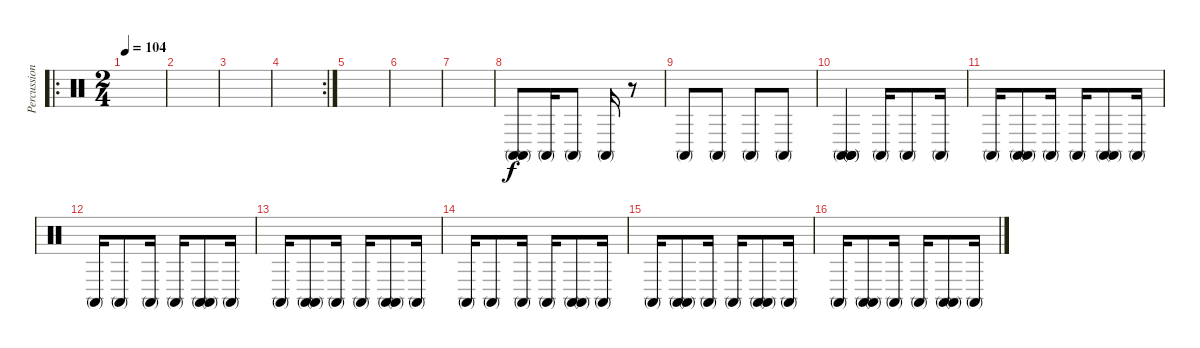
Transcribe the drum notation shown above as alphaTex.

\track ("Percussion" "Percussion") {instrument percussion}
\staff {score}
\articulation defaults
\ro
\ts (2 4)
\tempo 104
\clef neutral
\ks c
|
|
|
\rc 2
|
|
|
|
("Conga high (mute)" "Conga high (mute)").8 "Conga high (mute)".16 "Conga high (mute)".8 "Conga high (mute)".16 r.8 |
"Conga high (mute)".8 "Conga high (mute)".8 "Conga high (mute)".8 "Conga high (mute)".8 |
("Conga high (mute)" "Conga high (mute)" "Conga high (mute)").4 "Conga high (mute)".16 "Conga high (mute)".8 "Conga high (mute)".16 |
"Conga high (mute)".16 ("Conga high (mute)" "Conga high (mute)").8 "Conga high (mute)".16 "Conga high (mute)".16 ("Conga high (mute)" "Conga high (mute)").8 "Conga high (mute)".16 |
"Conga high (mute)".16 "Conga high (mute)".8 "Conga high (mute)".16 "Conga high (mute)".16 ("Conga high (mute)" "Conga high (mute)").8 "Conga high (mute)".16 |
"Conga high (mute)".16 ("Conga high (mute)" "Conga high (mute)").8 "Conga high (mute)".16 "Conga high (mute)".16 ("Conga high (mute)" "Conga high (mute)").8 "Conga high (mute)".16 |
"Conga high (mute)".16 "Conga high (mute)".8 "Conga high (mute)".16 "Conga high (mute)".16 ("Conga high (mute)" "Conga high (mute)").8 "Conga high (mute)".16 |
"Conga high (mute)".16 ("Conga high (mute)" "Conga high (mute)").8 "Conga high (mute)".16 "Conga high (mute)".16 ("Conga high (mute)" "Conga high (mute)").8 "Conga high (mute)".16 |
"Conga high (mute)".16 ("Conga high (mute)" "Conga high (mute)").8 "Conga high (mute)".16 "Conga high (mute)".16 ("Conga high (mute)" "Conga high (mute)").8 "Conga high (mute)".16
